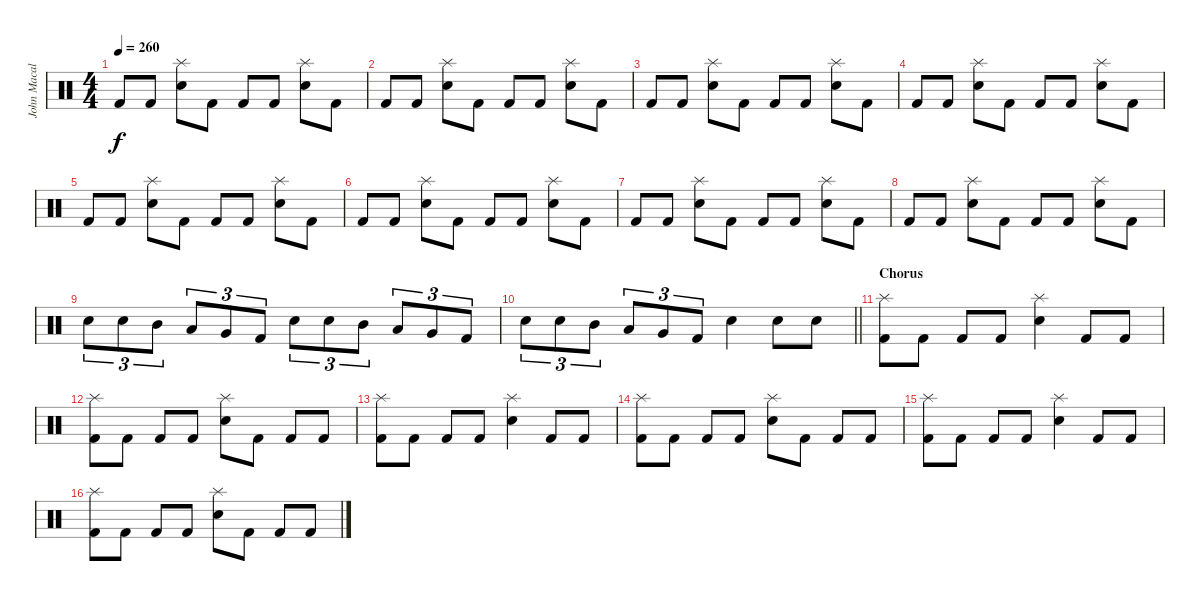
\track ("John Macaluso" "John Macal") {instrument percussion}
\staff {score}
\articulation defaults
\ts (4 4)
\tempo 260
\clef neutral
\ks c "Kick (hit) 2".8{dy f} "Kick (hit) 2".8
("Splash (hit)" "Snare (hit) 2").8 "Kick (hit) 2".8 "Kick (hit) 2".8 "Kick (hit) 2".8 ("Splash (hit)" "Snare (hit) 2").8 "Kick (hit) 2".8 |
"Kick (hit) 2".8 "Kick (hit) 2".8 ("Splash (hit)" "Snare (hit) 2").8 "Kick (hit) 2".8 "Kick (hit) 2".8 "Kick (hit) 2".8 ("Splash (hit)" "Snare (hit) 2").8 "Kick (hit) 2".8 |
"Kick (hit) 2".8 "Kick (hit) 2".8 ("Splash (hit)" "Snare (hit) 2").8 "Kick (hit) 2".8 "Kick (hit) 2".8 "Kick (hit) 2".8 ("Splash (hit)" "Snare (hit) 2").8 "Kick (hit) 2".8 |
"Kick (hit) 2".8 "Kick (hit) 2".8 ("Splash (hit)" "Snare (hit) 2").8 "Kick (hit) 2".8 "Kick (hit) 2".8 "Kick (hit) 2".8 ("Splash (hit)" "Snare (hit) 2").8 "Kick (hit) 2".8 |
"Kick (hit) 2".8 "Kick (hit) 2".8 ("Splash (hit)" "Snare (hit) 2").8 "Kick (hit) 2".8 "Kick (hit) 2".8 "Kick (hit) 2".8 ("Splash (hit)" "Snare (hit) 2").8 "Kick (hit) 2".8 |
"Kick (hit) 2".8 "Kick (hit) 2".8 ("Splash (hit)" "Snare (hit) 2").8 "Kick (hit) 2".8 "Kick (hit) 2".8 "Kick (hit) 2".8 ("Splash (hit)" "Snare (hit) 2").8 "Kick (hit) 2".8 |
"Kick (hit) 2".8 "Kick (hit) 2".8 ("Splash (hit)" "Snare (hit) 2").8 "Kick (hit) 2".8 "Kick (hit) 2".8 "Kick (hit) 2".8 ("Splash (hit)" "Snare (hit) 2").8 "Kick (hit) 2".8 |
"Kick (hit) 2".8 "Kick (hit) 2".8 ("Splash (hit)" "Snare (hit) 2").8 "Kick (hit) 2".8 "Kick (hit) 2".8 "Kick (hit) 2".8 ("Splash (hit)" "Snare (hit) 2").8 "Kick (hit) 2".8 |
"Snare (hit) 2".8{tu (3 2)} "Snare (hit) 2".8{tu (3 2)} "Mid Tom (hit)".8{tu (3 2)} "Low Tom (hit)".8{tu (3 2)} "Very Low Tom (hit)".8{tu (3 2)} "Kick (hit) 2".8{tu (3 2)} "Snare (hit) 2".8{tu (3 2)} "Snare (hit) 2".8{tu (3 2)} "Mid Tom (hit)".8{tu (3 2)} "Low Tom (hit)".8{tu (3 2)} "Very Low Tom (hit)".8{tu (3 2)} "Kick (hit) 2".8{tu (3 2)} |
\barLineRight lightlight "Snare (hit) 2".8{tu (3 2)} "Snare (hit) 2".8{tu (3 2)} "Mid Tom (hit)".8{tu (3 2)} "Low Tom (hit)".8{tu (3 2)} "Very Low Tom (hit)".8{tu (3 2)} "Kick (hit) 2".8{tu (3 2)} "Snare (hit) 2".4 "Snare (hit) 2".8 "Snare (hit) 2".8
|
\section ("" "Chorus")
("Splash (hit)" "Kick (hit) 2").8 "Kick (hit) 2".8 "Kick (hit) 2".8 "Kick (hit) 2".8 ("Splash (hit)" "Snare (hit) 2").4 "Kick (hit) 2".8 "Kick (hit) 2".8 |
("Splash (hit)" "Kick (hit) 2").8 "Kick (hit) 2".8 "Kick (hit) 2".8 "Kick (hit) 2".8 ("Splash (hit)" "Snare (hit) 2").8 "Kick (hit) 2".8 "Kick (hit) 2".8 "Kick (hit) 2".8 |
("Splash (hit)" "Kick (hit) 2").8 "Kick (hit) 2".8 "Kick (hit) 2".8 "Kick (hit) 2".8 ("Splash (hit)" "Snare (hit) 2").4 "Kick (hit) 2".8 "Kick (hit) 2".8 |
("Splash (hit)" "Kick (hit) 2").8 "Kick (hit) 2".8 "Kick (hit) 2".8 "Kick (hit) 2".8 ("Splash (hit)" "Snare (hit) 2").8 "Kick (hit) 2".8 "Kick (hit) 2".8 "Kick (hit) 2".8 |
("Splash (hit)" "Kick (hit) 2").8 "Kick (hit) 2".8 "Kick (hit) 2".8 "Kick (hit) 2".8 ("Splash (hit)" "Snare (hit) 2").4 "Kick (hit) 2".8 "Kick (hit) 2".8 |
("Splash (hit)" "Kick (hit) 2").8 "Kick (hit) 2".8 "Kick (hit) 2".8 "Kick (hit) 2".8 ("Splash (hit)" "Snare (hit) 2").8 "Kick (hit) 2".8 "Kick (hit) 2".8 "Kick (hit) 2".8
